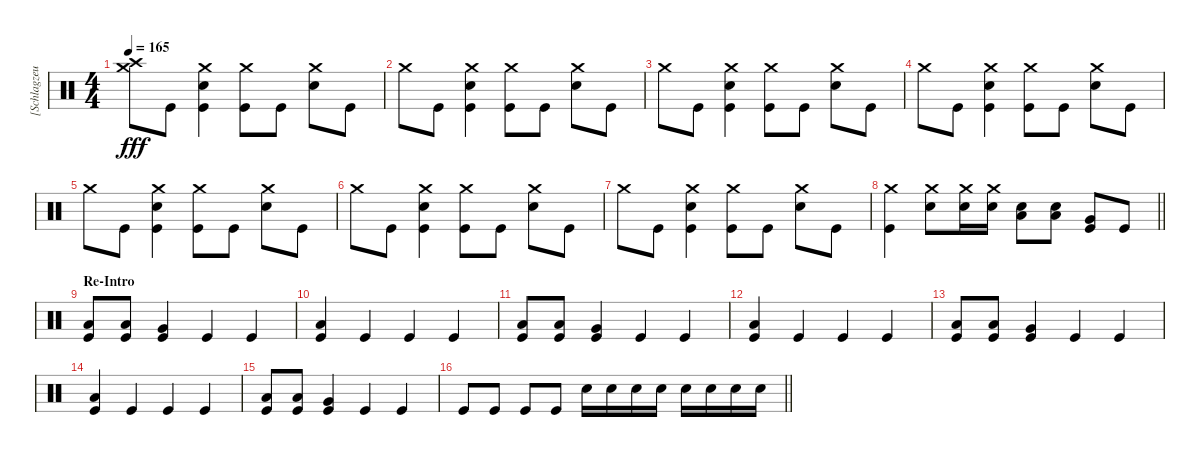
\track ("[Schlagzeug]" "[Schlagzeu") {instrument percussion}
\staff {score}
\articulation defaults
\ts (4 4)
\tempo 165
\clef neutral
\ks c
("Crash medium (hit)" "Crash high (hit)").8{dy fff} "Kick (hit)".8 ("Crash medium (hit)" "Electric Snare (hit)" "Kick (hit)").4 ("Crash medium (hit)" "Kick (hit)").8 "Kick (hit)".8 ("Crash medium (hit)" "Electric Snare (hit)").8 "Kick (hit)".8 |
"Crash medium (hit)".8 "Kick (hit)".8 ("Crash medium (hit)" "Electric Snare (hit)" "Kick (hit)").4 ("Crash medium (hit)" "Kick (hit)").8 "Kick (hit)".8 ("Crash medium (hit)" "Electric Snare (hit)").8 "Kick (hit)".8 |
"Crash medium (hit)".8 "Kick (hit)".8 ("Crash medium (hit)" "Electric Snare (hit)" "Kick (hit)").4 ("Crash medium (hit)" "Kick (hit)").8 "Kick (hit)".8 ("Crash medium (hit)" "Electric Snare (hit)").8 "Kick (hit)".8 |
"Crash medium (hit)".8 "Kick (hit)".8 ("Crash medium (hit)" "Electric Snare (hit)" "Kick (hit)").4 ("Crash medium (hit)" "Kick (hit)").8 "Kick (hit)".8 ("Crash medium (hit)" "Electric Snare (hit)").8 "Kick (hit)".8 |
"Crash medium (hit)".8 "Kick (hit)".8 ("Crash medium (hit)" "Electric Snare (hit)" "Kick (hit)").4 ("Crash medium (hit)" "Kick (hit)").8 "Kick (hit)".8 ("Crash medium (hit)" "Electric Snare (hit)").8 "Kick (hit)".8 |
"Crash medium (hit)".8 "Kick (hit)".8 ("Crash medium (hit)" "Electric Snare (hit)" "Kick (hit)").4 ("Crash medium (hit)" "Kick (hit)").8 "Kick (hit)".8 ("Crash medium (hit)" "Electric Snare (hit)").8 "Kick (hit)".8 |
"Crash medium (hit)".8 "Kick (hit)".8 ("Crash medium (hit)" "Electric Snare (hit)" "Kick (hit)").4 ("Crash medium (hit)" "Kick (hit)").8 "Kick (hit)".8 ("Crash medium (hit)" "Electric Snare (hit)").8 "Kick (hit)".8 |
\barLineRight lightlight
("Crash medium (hit)" "Kick (hit)").4 ("Crash medium (hit)" "Electric Snare (hit)").8 ("Crash medium (hit)" "Electric Snare (hit)").16 ("Crash medium (hit)" "Electric Snare (hit)").16 ("Low Tom (hit)" "Electric Snare (hit)").8 ("Low Tom (hit)" "Electric Snare (hit)").8 ("Very Low Tom (hit)" "Kick (hit)").8 "Kick (hit)".8 |
\section ("" "Re-Intro")
("Low Tom (hit)" "Kick (hit)").8 ("Low Tom (hit)" "Kick (hit)").8 ("Very Low Tom (hit)" "Kick (hit)").4 "Kick (hit)".4 "Kick (hit)".4 |
("Low Tom (hit)" "Kick (hit)").4 "Kick (hit)".4 "Kick (hit)".4 "Kick (hit)".4 |
("Low Tom (hit)" "Kick (hit)").8 ("Low Tom (hit)" "Kick (hit)").8 ("Very Low Tom (hit)" "Kick (hit)").4 "Kick (hit)".4 "Kick (hit)".4 |
("Low Tom (hit)" "Kick (hit)").4 "Kick (hit)".4 "Kick (hit)".4 "Kick (hit)".4 |
("Low Tom (hit)" "Kick (hit)").8 ("Low Tom (hit)" "Kick (hit)").8 ("Very Low Tom (hit)" "Kick (hit)").4 "Kick (hit)".4 "Kick (hit)".4 |
("Low Tom (hit)" "Kick (hit)").4 "Kick (hit)".4 "Kick (hit)".4 "Kick (hit)".4 |
("Low Tom (hit)" "Kick (hit)").8 ("Low Tom (hit)" "Kick (hit)").8 ("Very Low Tom (hit)" "Kick (hit)").4 "Kick (hit)".4 "Kick (hit)".4 |
\barLineRight lightlight "Kick (hit)".8 "Kick (hit)".8 "Kick (hit)".8 "Kick (hit)".8 "Electric Snare (hit)".16 "Electric Snare (hit)".16 "Electric Snare (hit)".16 "Electric Snare (hit)".16 "Electric Snare (hit)".16 "Electric Snare (hit)".16 "Electric Snare (hit)".16 "Electric Snare (hit)".16
